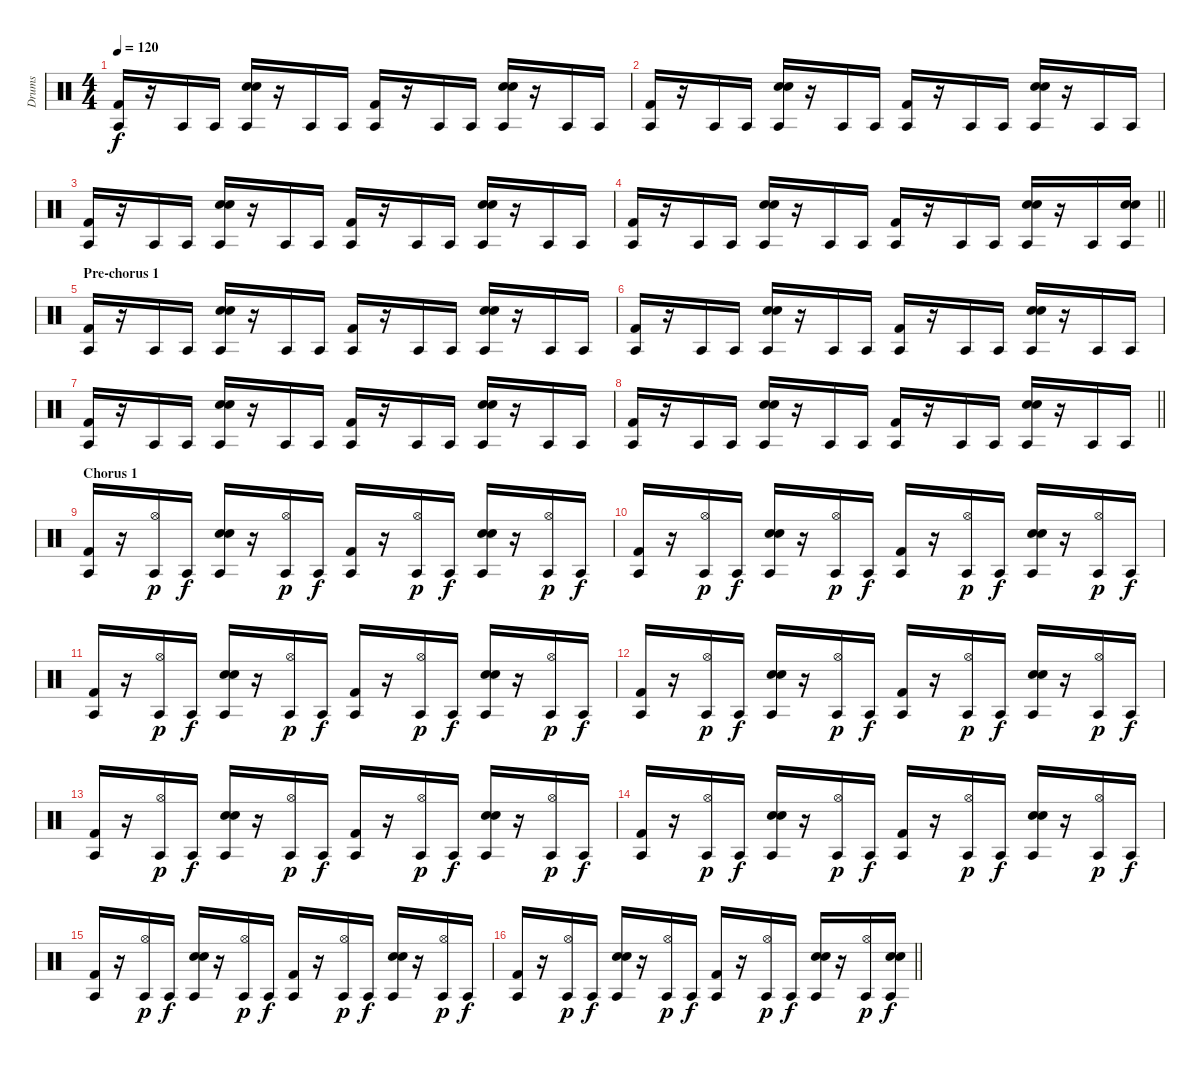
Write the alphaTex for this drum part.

\track ("Drums" "Drums") {instrument percussion}
\staff {score}
\articulation defaults
\ts (4 4)
\tempo 120
\clef neutral
\ks c
("Kick (hit) 2" "Agogo tow (hit)").16{dy f} r.16 "Agogo tow (hit)".16 "Agogo tow (hit)".16 ("Snare (hit) 2" "Hand Clap (hit)" "Agogo tow (hit)").16 r.16 "Agogo tow (hit)".16 "Agogo tow (hit)".16 ("Kick (hit) 2" "Agogo tow (hit)").16 r.16 "Agogo tow (hit)".16 "Agogo tow (hit)".16 ("Snare (hit) 2" "Hand Clap (hit)" "Agogo tow (hit)").16 r.16 "Agogo tow (hit)".16 "Agogo tow (hit)".16 |
("Kick (hit) 2" "Agogo tow (hit)").16 r.16 "Agogo tow (hit)".16 "Agogo tow (hit)".16 ("Snare (hit) 2" "Hand Clap (hit)" "Agogo tow (hit)").16 r.16 "Agogo tow (hit)".16 "Agogo tow (hit)".16 ("Kick (hit) 2" "Agogo tow (hit)").16 r.16 "Agogo tow (hit)".16 "Agogo tow (hit)".16 ("Snare (hit) 2" "Hand Clap (hit)" "Agogo tow (hit)").16 r.16 "Agogo tow (hit)".16 "Agogo tow (hit)".16 |
("Kick (hit) 2" "Agogo tow (hit)").16 r.16 "Agogo tow (hit)".16 "Agogo tow (hit)".16 ("Snare (hit) 2" "Hand Clap (hit)" "Agogo tow (hit)").16 r.16 "Agogo tow (hit)".16 "Agogo tow (hit)".16 ("Kick (hit) 2" "Agogo tow (hit)").16 r.16 "Agogo tow (hit)".16 "Agogo tow (hit)".16 ("Snare (hit) 2" "Hand Clap (hit)" "Agogo tow (hit)").16 r.16 "Agogo tow (hit)".16 "Agogo tow (hit)".16 |
\barLineRight lightlight
("Kick (hit) 2" "Agogo tow (hit)").16 r.16 "Agogo tow (hit)".16 "Agogo tow (hit)".16 ("Snare (hit) 2" "Hand Clap (hit)" "Agogo tow (hit)").16 r.16 "Agogo tow (hit)".16 "Agogo tow (hit)".16 ("Kick (hit) 2" "Agogo tow (hit)").16 r.16 "Agogo tow (hit)".16 "Agogo tow (hit)".16 ("Snare (hit) 2" "Hand Clap (hit)" "Agogo tow (hit)").16 r.16 "Agogo tow (hit)".16 ("Snare (hit) 2" "Hand Clap (hit)" "Agogo tow (hit)").16 |
\section ("" "Pre-chorus 1")
("Kick (hit) 2" "Agogo tow (hit)").16 r.16 "Agogo tow (hit)".16 "Agogo tow (hit)".16 ("Snare (hit) 2" "Hand Clap (hit)" "Agogo tow (hit)").16 r.16 "Agogo tow (hit)".16 "Agogo tow (hit)".16 ("Kick (hit) 2" "Agogo tow (hit)").16 r.16 "Agogo tow (hit)".16 "Agogo tow (hit)".16 ("Snare (hit) 2" "Hand Clap (hit)" "Agogo tow (hit)").16 r.16 "Agogo tow (hit)".16 "Agogo tow (hit)".16 |
("Kick (hit) 2" "Agogo tow (hit)").16 r.16 "Agogo tow (hit)".16 "Agogo tow (hit)".16 ("Snare (hit) 2" "Hand Clap (hit)" "Agogo tow (hit)").16 r.16 "Agogo tow (hit)".16 "Agogo tow (hit)".16 ("Kick (hit) 2" "Agogo tow (hit)").16 r.16 "Agogo tow (hit)".16 "Agogo tow (hit)".16 ("Snare (hit) 2" "Hand Clap (hit)" "Agogo tow (hit)").16 r.16 "Agogo tow (hit)".16 "Agogo tow (hit)".16 |
("Kick (hit) 2" "Agogo tow (hit)").16 r.16 "Agogo tow (hit)".16 "Agogo tow (hit)".16 ("Snare (hit) 2" "Hand Clap (hit)" "Agogo tow (hit)").16 r.16 "Agogo tow (hit)".16 "Agogo tow (hit)".16 ("Kick (hit) 2" "Agogo tow (hit)").16 r.16 "Agogo tow (hit)".16 "Agogo tow (hit)".16 ("Snare (hit) 2" "Hand Clap (hit)" "Agogo tow (hit)").16 r.16 "Agogo tow (hit)".16 "Agogo tow (hit)".16 |
\barLineRight lightlight
("Kick (hit) 2" "Agogo tow (hit)").16 r.16 "Agogo tow (hit)".16 "Agogo tow (hit)".16 ("Snare (hit) 2" "Hand Clap (hit)" "Agogo tow (hit)").16 r.16 "Agogo tow (hit)".16 "Agogo tow (hit)".16 ("Kick (hit) 2" "Agogo tow (hit)").16 r.16 "Agogo tow (hit)".16 "Agogo tow (hit)".16 ("Snare (hit) 2" "Hand Clap (hit)" "Agogo tow (hit)").16 r.16 "Agogo tow (hit)".16 "Agogo tow (hit)".16 |
\section ("" "Chorus 1")
("Kick (hit) 2" "Agogo tow (hit)").16 r.16 ("Agogo tow (hit)" "Hi-Hat (open)").16{dy p} "Agogo tow (hit)".16{dy f} ("Snare (hit) 2" "Hand Clap (hit)" "Agogo tow (hit)").16 r.16 ("Agogo tow (hit)" "Hi-Hat (open)").16{dy p} "Agogo tow (hit)".16{dy f} ("Kick (hit) 2" "Agogo tow (hit)").16 r.16 ("Hi-Hat (open)" "Agogo tow (hit)").16{dy p} "Agogo tow (hit)".16{dy f} ("Snare (hit) 2" "Hand Clap (hit)" "Agogo tow (hit)").16 r.16 ("Hi-Hat (open)" "Agogo tow (hit)").16{dy p} "Agogo tow (hit)".16{dy f} |
("Kick (hit) 2" "Agogo tow (hit)").16 r.16 ("Agogo tow (hit)" "Hi-Hat (open)").16{dy p} "Agogo tow (hit)".16{dy f} ("Snare (hit) 2" "Hand Clap (hit)" "Agogo tow (hit)").16 r.16 ("Agogo tow (hit)" "Hi-Hat (open)").16{dy p} "Agogo tow (hit)".16{dy f} ("Kick (hit) 2" "Agogo tow (hit)").16 r.16 ("Hi-Hat (open)" "Agogo tow (hit)").16{dy p} "Agogo tow (hit)".16{dy f} ("Snare (hit) 2" "Hand Clap (hit)" "Agogo tow (hit)").16 r.16 ("Hi-Hat (open)" "Agogo tow (hit)").16{dy p} "Agogo tow (hit)".16{dy f} |
("Kick (hit) 2" "Agogo tow (hit)").16 r.16 ("Agogo tow (hit)" "Hi-Hat (open)").16{dy p} "Agogo tow (hit)".16{dy f} ("Snare (hit) 2" "Hand Clap (hit)" "Agogo tow (hit)").16 r.16 ("Agogo tow (hit)" "Hi-Hat (open)").16{dy p} "Agogo tow (hit)".16{dy f} ("Kick (hit) 2" "Agogo tow (hit)").16 r.16 ("Hi-Hat (open)" "Agogo tow (hit)").16{dy p} "Agogo tow (hit)".16{dy f} ("Snare (hit) 2" "Hand Clap (hit)" "Agogo tow (hit)").16 r.16 ("Hi-Hat (open)" "Agogo tow (hit)").16{dy p} "Agogo tow (hit)".16{dy f} |
("Kick (hit) 2" "Agogo tow (hit)").16 r.16 ("Agogo tow (hit)" "Hi-Hat (open)").16{dy p} "Agogo tow (hit)".16{dy f} ("Snare (hit) 2" "Hand Clap (hit)" "Agogo tow (hit)").16 r.16 ("Agogo tow (hit)" "Hi-Hat (open)").16{dy p} "Agogo tow (hit)".16{dy f} ("Kick (hit) 2" "Agogo tow (hit)").16 r.16 ("Hi-Hat (open)" "Agogo tow (hit)").16{dy p} "Agogo tow (hit)".16{dy f} ("Snare (hit) 2" "Hand Clap (hit)" "Agogo tow (hit)").16 r.16 ("Hi-Hat (open)" "Agogo tow (hit)").16{dy p} "Agogo tow (hit)".16{dy f} |
("Kick (hit) 2" "Agogo tow (hit)").16 r.16 ("Agogo tow (hit)" "Hi-Hat (open)").16{dy p} "Agogo tow (hit)".16{dy f} ("Snare (hit) 2" "Hand Clap (hit)" "Agogo tow (hit)").16 r.16 ("Agogo tow (hit)" "Hi-Hat (open)").16{dy p} "Agogo tow (hit)".16{dy f} ("Kick (hit) 2" "Agogo tow (hit)").16 r.16 ("Hi-Hat (open)" "Agogo tow (hit)").16{dy p} "Agogo tow (hit)".16{dy f} ("Snare (hit) 2" "Hand Clap (hit)" "Agogo tow (hit)").16 r.16 ("Hi-Hat (open)" "Agogo tow (hit)").16{dy p} "Agogo tow (hit)".16{dy f} |
("Kick (hit) 2" "Agogo tow (hit)").16 r.16 ("Agogo tow (hit)" "Hi-Hat (open)").16{dy p} "Agogo tow (hit)".16{dy f} ("Snare (hit) 2" "Hand Clap (hit)" "Agogo tow (hit)").16 r.16 ("Agogo tow (hit)" "Hi-Hat (open)").16{dy p} "Agogo tow (hit)".16{dy f} ("Kick (hit) 2" "Agogo tow (hit)").16 r.16 ("Hi-Hat (open)" "Agogo tow (hit)").16{dy p} "Agogo tow (hit)".16{dy f} ("Snare (hit) 2" "Hand Clap (hit)" "Agogo tow (hit)").16 r.16 ("Hi-Hat (open)" "Agogo tow (hit)").16{dy p} "Agogo tow (hit)".16{dy f} |
("Kick (hit) 2" "Agogo tow (hit)").16 r.16 ("Agogo tow (hit)" "Hi-Hat (open)").16{dy p} "Agogo tow (hit)".16{dy f} ("Snare (hit) 2" "Hand Clap (hit)" "Agogo tow (hit)").16 r.16 ("Agogo tow (hit)" "Hi-Hat (open)").16{dy p} "Agogo tow (hit)".16{dy f} ("Kick (hit) 2" "Agogo tow (hit)").16 r.16 ("Hi-Hat (open)" "Agogo tow (hit)").16{dy p} "Agogo tow (hit)".16{dy f} ("Snare (hit) 2" "Hand Clap (hit)" "Agogo tow (hit)").16 r.16 ("Hi-Hat (open)" "Agogo tow (hit)").16{dy p} "Agogo tow (hit)".16{dy f} |
\barLineRight lightlight
("Kick (hit) 2" "Agogo tow (hit)").16 r.16 ("Agogo tow (hit)" "Hi-Hat (open)").16{dy p} "Agogo tow (hit)".16{dy f} ("Snare (hit) 2" "Hand Clap (hit)" "Agogo tow (hit)").16 r.16 ("Agogo tow (hit)" "Hi-Hat (open)").16{dy p} "Agogo tow (hit)".16{dy f} ("Kick (hit) 2" "Agogo tow (hit)").16 r.16 ("Hi-Hat (open)" "Agogo tow (hit)").16{dy p} "Agogo tow (hit)".16{dy f} ("Snare (hit) 2" "Hand Clap (hit)" "Agogo tow (hit)").16 r.16 ("Hi-Hat (open)" "Agogo tow (hit)").16{dy p} ("Snare (hit) 2" "Hand Clap (hit)" "Agogo tow (hit)").16{dy f}
